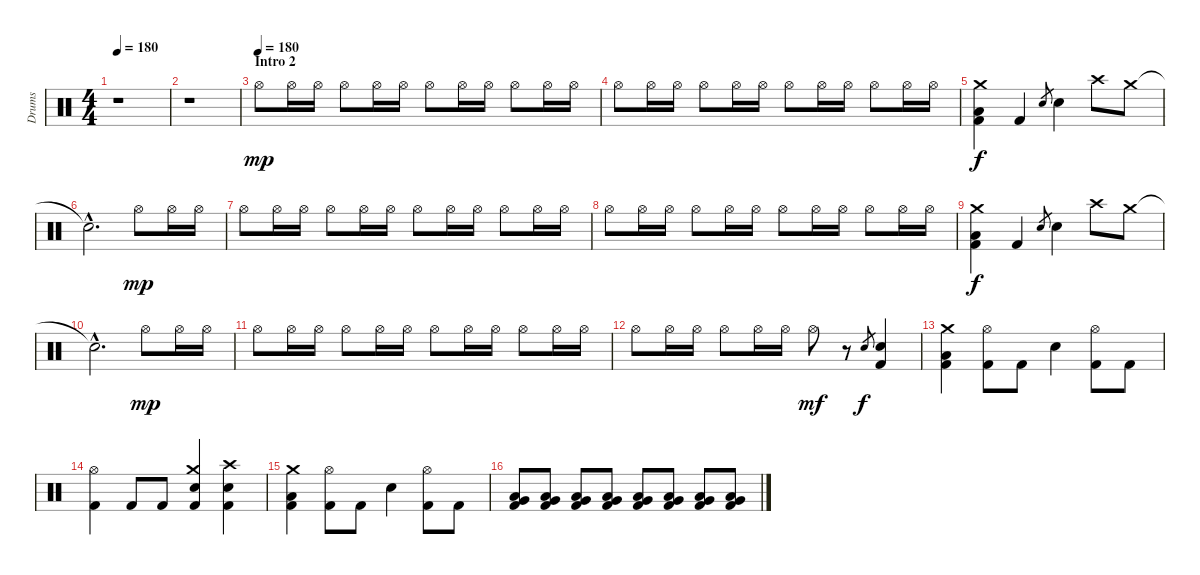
\track ("Drums" "Drums") {instrument percussion}
\staff {score}
\articulation defaults
\ts (4 4)
\tempo 180
\clef neutral
\ks c
r.1{dy mp} |
r.1 |
\section ("" "Intro 2")
\tempo (180)
"Hi-Hat (open)".8 "Hi-Hat (open)".16 "Hi-Hat (open)".16 "Hi-Hat (open)".8 "Hi-Hat (open)".16 "Hi-Hat (open)".16 "Hi-Hat (open)".8 "Hi-Hat (open)".16 "Hi-Hat (open)".16 "Hi-Hat (open)".8 "Hi-Hat (open)".16 "Hi-Hat (open)".16 |
"Hi-Hat (open)".8 "Hi-Hat (open)".16 "Hi-Hat (open)".16 "Hi-Hat (open)".8 "Hi-Hat (open)".16 "Hi-Hat (open)".16 "Hi-Hat (open)".8 "Hi-Hat (open)".16 "Hi-Hat (open)".16 "Hi-Hat (open)".8 "Hi-Hat (open)".16 "Hi-Hat (open)".16 |
("Kick (hit) 2" "Low Floor Tom (hit)" "Crash medium (hit)").4{dy f} "Kick (hit) 2".4 "Electric Snare (hit)".8{gr} "Electric Snare (hit)".4 "Crash high (hit)".8 "Crash medium (hit)".8 |
"Snare (hit)"{hac t}.2{d} "Hi-Hat (open)".8{dy mp} "Hi-Hat (open)".16 "Hi-Hat (open)".16 |
"Hi-Hat (open)".8 "Hi-Hat (open)".16 "Hi-Hat (open)".16 "Hi-Hat (open)".8 "Hi-Hat (open)".16 "Hi-Hat (open)".16 "Hi-Hat (open)".8 "Hi-Hat (open)".16 "Hi-Hat (open)".16 "Hi-Hat (open)".8 "Hi-Hat (open)".16 "Hi-Hat (open)".16 |
"Hi-Hat (open)".8 "Hi-Hat (open)".16 "Hi-Hat (open)".16 "Hi-Hat (open)".8 "Hi-Hat (open)".16 "Hi-Hat (open)".16 "Hi-Hat (open)".8 "Hi-Hat (open)".16 "Hi-Hat (open)".16 "Hi-Hat (open)".8 "Hi-Hat (open)".16 "Hi-Hat (open)".16 |
("Kick (hit) 2" "Low Floor Tom (hit)" "Crash medium (hit)").4{dy f} "Kick (hit) 2".4 "Electric Snare (hit)".8{gr} "Electric Snare (hit)".4 "Crash high (hit)".8 "Crash medium (hit)".8 |
"Snare (hit)"{hac t}.2{d} "Hi-Hat (open)".8{dy mp} "Hi-Hat (open)".16 "Hi-Hat (open)".16 |
"Hi-Hat (open)".8 "Hi-Hat (open)".16 "Hi-Hat (open)".16 "Hi-Hat (open)".8 "Hi-Hat (open)".16 "Hi-Hat (open)".16 "Hi-Hat (open)".8 "Hi-Hat (open)".16 "Hi-Hat (open)".16 "Hi-Hat (open)".8 "Hi-Hat (open)".16 "Hi-Hat (open)".16 |
"Hi-Hat (open)".8 "Hi-Hat (open)".16 "Hi-Hat (open)".16 "Hi-Hat (open)".8 "Hi-Hat (open)".16 "Hi-Hat (open)".16 "Hi-Hat (open)".8{dy mf} r.8 "Electric Snare (hit)".8{gr dy f} ("Kick (hit) 2" "Electric Snare (hit)").4 |
("Kick (hit) 2" "Low Floor Tom (hit)" "Crash medium (hit)").4 ("Kick (hit) 2" "Hi-Hat (open)").8 "Kick (hit) 2".8 "Electric Snare (hit)".4 ("Kick (hit) 2" "Hi-Hat (open)").8 "Kick (hit) 2".8 |
("Kick (hit) 2" "Hi-Hat (open)").4 "Kick (hit) 2".8 "Kick (hit) 2".8 ("Kick (hit) 2" "Electric Snare (hit)" "Crash medium (hit)").4 ("Kick (hit) 2" "Electric Snare (hit)" "Crash high (hit)").4 |
("Kick (hit) 2" "Low Floor Tom (hit)" "Crash medium (hit)").4 ("Kick (hit) 2" "Hi-Hat (open)").8 "Kick (hit) 2".8 "Electric Snare (hit)".4 ("Kick (hit) 2" "Hi-Hat (open)").8 "Kick (hit) 2".8 |
("Kick (hit) 2" "Low Floor Tom (hit)" "Very Low Tom (hit)").8 ("Kick (hit) 2" "Low Floor Tom (hit)" "Very Low Tom (hit)").8 ("Kick (hit) 2" "Low Floor Tom (hit)" "Very Low Tom (hit)").8 ("Kick (hit) 2" "Low Floor Tom (hit)" "Very Low Tom (hit)").8 ("Kick (hit) 2" "Low Floor Tom (hit)" "Very Low Tom (hit)").8 ("Kick (hit) 2" "Low Floor Tom (hit)" "Very Low Tom (hit)").8 ("Kick (hit) 2" "Low Floor Tom (hit)" "Very Low Tom (hit)").8 ("Kick (hit) 2" "Low Floor Tom (hit)" "Very Low Tom (hit)").8
